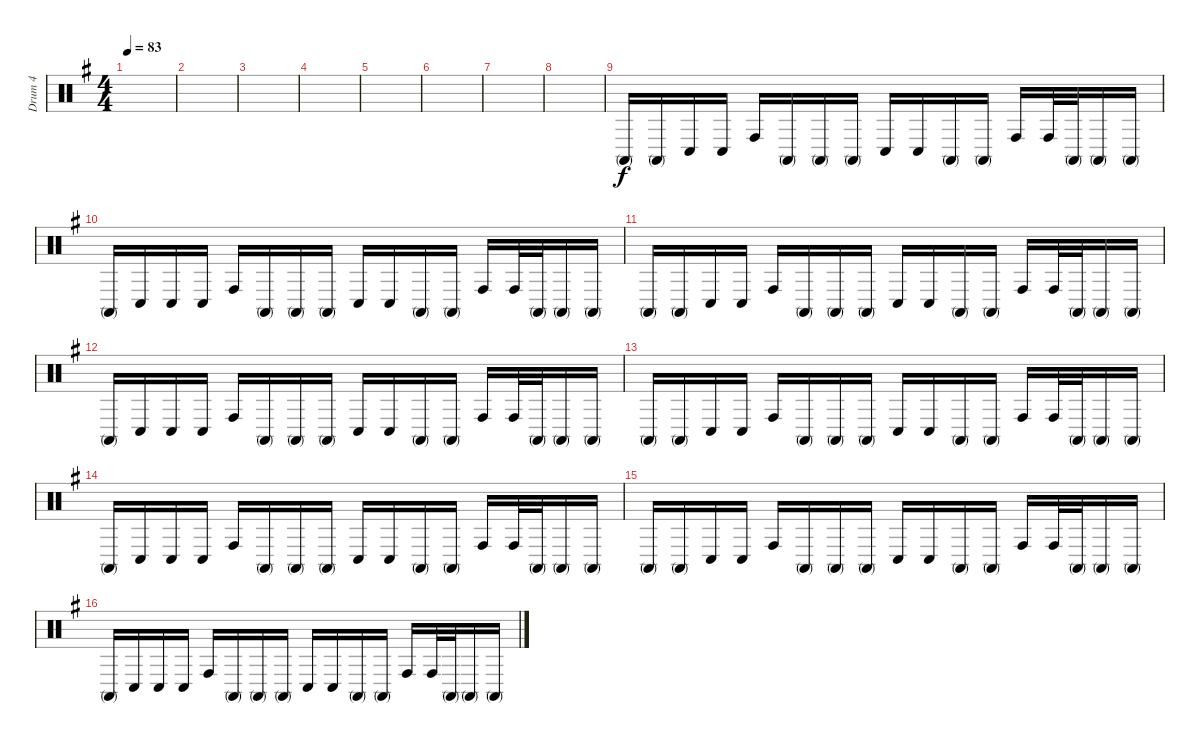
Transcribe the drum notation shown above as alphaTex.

\track ("Drum 4" "Drum 4") {instrument percussion}
\staff {score}
\articulation defaults
\ts (4 4)
\tempo 83
\clef neutral
\ks eminor
|
|
|
|
|
|
|
|
"Conga high (mute)".16 "Conga high (mute)".16 "Conga low (hit)".16 "Conga low (hit)".16 "Conga high (hit)".16 "Conga high (mute)".16 "Conga high (mute)".16 "Conga high (mute)".16 "Conga low (hit)".16 "Conga low (hit)".16 "Conga high (mute)".16 "Conga high (mute)".16 "Conga high (hit)".16 "Conga high (hit)".32 "Conga high (mute)".32 "Conga high (mute)".16 "Conga high (mute)".16 |
"Conga high (mute)".16 "Conga low (hit)".16 "Conga low (hit)".16 "Conga low (hit)".16 "Conga high (hit)".16 "Conga high (mute)".16 "Conga high (mute)".16 "Conga high (mute)".16 "Conga low (hit)".16 "Conga low (hit)".16 "Conga high (mute)".16 "Conga high (mute)".16 "Conga high (hit)".16 "Conga high (hit)".32 "Conga high (mute)".32 "Conga high (mute)".16 "Conga high (mute)".16 |
"Conga high (mute)".16 "Conga high (mute)".16 "Conga low (hit)".16 "Conga low (hit)".16 "Conga high (hit)".16 "Conga high (mute)".16 "Conga high (mute)".16 "Conga high (mute)".16 "Conga low (hit)".16 "Conga low (hit)".16 "Conga high (mute)".16 "Conga high (mute)".16 "Conga high (hit)".16 "Conga high (hit)".32 "Conga high (mute)".32 "Conga high (mute)".16 "Conga high (mute)".16 |
"Conga high (mute)".16 "Conga low (hit)".16 "Conga low (hit)".16 "Conga low (hit)".16 "Conga high (hit)".16 "Conga high (mute)".16 "Conga high (mute)".16 "Conga high (mute)".16 "Conga low (hit)".16 "Conga low (hit)".16 "Conga high (mute)".16 "Conga high (mute)".16 "Conga high (hit)".16 "Conga high (hit)".32 "Conga high (mute)".32 "Conga high (mute)".16 "Conga high (mute)".16 |
"Conga high (mute)".16 "Conga high (mute)".16 "Conga low (hit)".16 "Conga low (hit)".16 "Conga high (hit)".16 "Conga high (mute)".16 "Conga high (mute)".16 "Conga high (mute)".16 "Conga low (hit)".16 "Conga low (hit)".16 "Conga high (mute)".16 "Conga high (mute)".16 "Conga high (hit)".16 "Conga high (hit)".32 "Conga high (mute)".32 "Conga high (mute)".16 "Conga high (mute)".16 |
"Conga high (mute)".16 "Conga low (hit)".16 "Conga low (hit)".16 "Conga low (hit)".16 "Conga high (hit)".16 "Conga high (mute)".16 "Conga high (mute)".16 "Conga high (mute)".16 "Conga low (hit)".16 "Conga low (hit)".16 "Conga high (mute)".16 "Conga high (mute)".16 "Conga high (hit)".16 "Conga high (hit)".32 "Conga high (mute)".32 "Conga high (mute)".16 "Conga high (mute)".16 |
"Conga high (mute)".16 "Conga high (mute)".16 "Conga low (hit)".16 "Conga low (hit)".16 "Conga high (hit)".16 "Conga high (mute)".16 "Conga high (mute)".16 "Conga high (mute)".16 "Conga low (hit)".16 "Conga low (hit)".16 "Conga high (mute)".16 "Conga high (mute)".16 "Conga high (hit)".16 "Conga high (hit)".32 "Conga high (mute)".32 "Conga high (mute)".16 "Conga high (mute)".16 |
"Conga high (mute)".16 "Conga low (hit)".16 "Conga low (hit)".16 "Conga low (hit)".16 "Conga high (hit)".16 "Conga high (mute)".16 "Conga high (mute)".16 "Conga high (mute)".16 "Conga low (hit)".16 "Conga low (hit)".16 "Conga high (mute)".16 "Conga high (mute)".16 "Conga high (hit)".16 "Conga high (hit)".32 "Conga high (mute)".32 "Conga high (mute)".16 "Conga high (mute)".16
